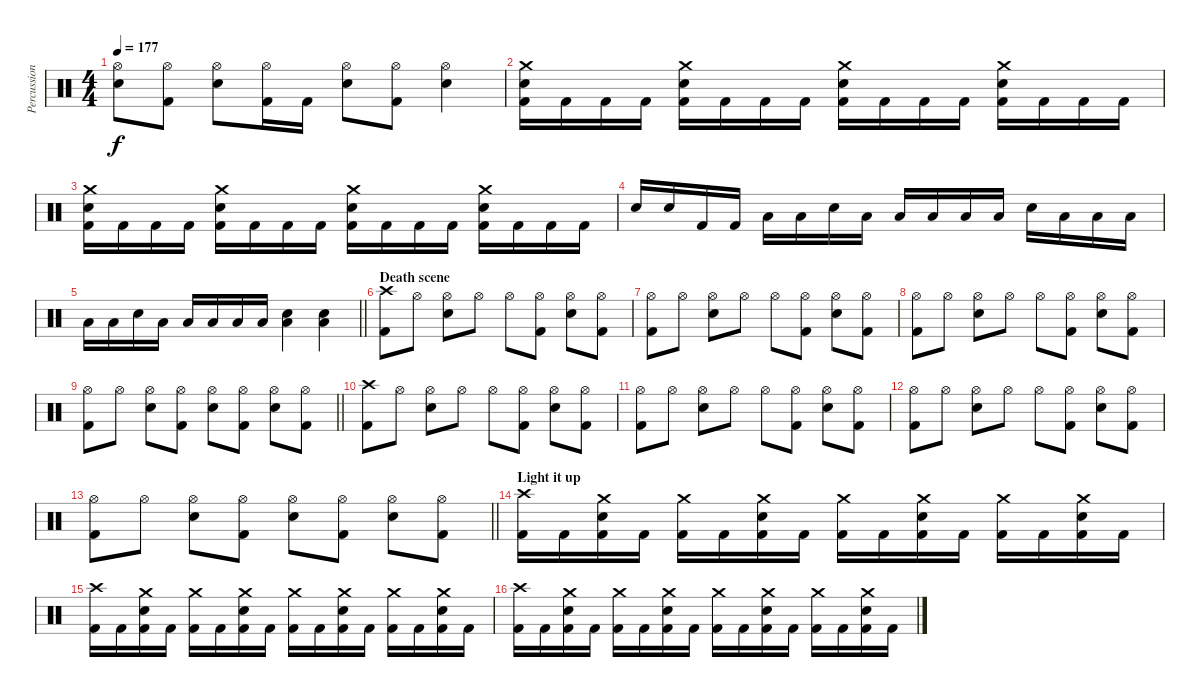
\track ("Percussion" "Percussion") {instrument percussion}
\staff {score}
\articulation defaults
\ts (4 4)
\tempo 177
\clef neutral
\ks c
("Hi-Hat (open)" "Snare (hit) 2").8{dy f} ("Hi-Hat (open)" "Kick (hit) 2").8 ("Hi-Hat (open)" "Snare (hit) 2").8 ("Hi-Hat (open)" "Kick (hit) 2").16 "Kick (hit) 2".16 ("Hi-Hat (open)" "Snare (hit) 2").8 ("Hi-Hat (open)" "Kick (hit) 2").8 ("Hi-Hat (open)" "Snare (hit) 2").4 |
("Crash medium (hit)" "Snare (hit) 2" "Kick (hit) 2").16 "Kick (hit) 2".16 "Kick (hit) 2".16 "Kick (hit) 2".16 ("Crash medium (hit)" "Snare (hit) 2" "Kick (hit) 2").16 "Kick (hit) 2".16 "Kick (hit) 2".16 "Kick (hit) 2".16 ("Crash medium (hit)" "Snare (hit) 2" "Kick (hit) 2").16 "Kick (hit) 2".16 "Kick (hit) 2".16 "Kick (hit) 2".16 ("Crash medium (hit)" "Snare (hit) 2" "Kick (hit) 2").16 "Kick (hit) 2".16 "Kick (hit) 2".16 "Kick (hit) 2".16 |
("Crash medium (hit)" "Snare (hit) 2" "Kick (hit) 2").16 "Kick (hit) 2".16 "Kick (hit) 2".16 "Kick (hit) 2".16 ("Crash medium (hit)" "Snare (hit) 2" "Kick (hit) 2").16 "Kick (hit) 2".16 "Kick (hit) 2".16 "Kick (hit) 2".16 ("Crash medium (hit)" "Snare (hit) 2" "Kick (hit) 2").16 "Kick (hit) 2".16 "Kick (hit) 2".16 "Kick (hit) 2".16 ("Crash medium (hit)" "Snare (hit) 2" "Kick (hit) 2").16 "Kick (hit) 2".16 "Kick (hit) 2".16 "Kick (hit) 2".16 |
"Snare (hit) 2".16 "Snare (hit) 2".16 "Kick (hit) 2".16 "Kick (hit) 2".16 "Low Tom (hit)".16 "Low Tom (hit)".16 "Snare (hit) 2".16 "Low Tom (hit)".16 "Low Tom (hit)".16 "Low Tom (hit)".16 "Low Tom (hit)".16 "Low Tom (hit)".16 "Snare (hit) 2".16 "Low Tom (hit)".16 "Low Tom (hit)".16 "Low Tom (hit)".16 |
\barLineRight lightlight "Low Tom (hit)".16 "Low Tom (hit)".16 "Snare (hit) 2".16 "Low Tom (hit)".16 "Low Tom (hit)".16 "Low Tom (hit)".16 "Low Tom (hit)".16 "Low Tom (hit)".16
("Snare (hit) 2" "Low Floor Tom (hit)").4 ("Snare (hit) 2" "Low Floor Tom (hit)").4 |
\section ("" "Death scene")
("Crash high (hit)" "Kick (hit) 2").8 "Hi-Hat (open)".8 ("Hi-Hat (open)" "Snare (hit) 2").8 "Hi-Hat (open)".8 "Hi-Hat (open)".8 ("Hi-Hat (open)" "Kick (hit) 2").8 ("Hi-Hat (open)" "Snare (hit) 2").8 ("Hi-Hat (open)" "Kick (hit) 2").8 |
("Hi-Hat (open)" "Kick (hit) 2").8 "Hi-Hat (open)".8 ("Hi-Hat (open)" "Snare (hit) 2").8 "Hi-Hat (open)".8 "Hi-Hat (open)".8 ("Hi-Hat (open)" "Kick (hit) 2").8 ("Hi-Hat (open)" "Snare (hit) 2").8 ("Hi-Hat (open)" "Kick (hit) 2").8 |
("Hi-Hat (open)" "Kick (hit) 2").8 "Hi-Hat (open)".8 ("Hi-Hat (open)" "Snare (hit) 2").8 "Hi-Hat (open)".8 "Hi-Hat (open)".8 ("Hi-Hat (open)" "Kick (hit) 2").8 ("Hi-Hat (open)" "Snare (hit) 2").8 ("Hi-Hat (open)" "Kick (hit) 2").8 |
\barLineRight lightlight
("Hi-Hat (open)" "Kick (hit) 2").8 "Hi-Hat (open)".8 ("Hi-Hat (open)" "Snare (hit) 2").8 ("Hi-Hat (open)" "Kick (hit) 2").8 ("Hi-Hat (open)" "Snare (hit) 2").8 ("Hi-Hat (open)" "Kick (hit) 2").8 ("Hi-Hat (open)" "Snare (hit) 2").8 ("Hi-Hat (open)" "Kick (hit) 2").8 |
("Crash high (hit)" "Kick (hit) 2").8 "Hi-Hat (open)".8 ("Hi-Hat (open)" "Snare (hit) 2").8 "Hi-Hat (open)".8 "Hi-Hat (open)".8 ("Hi-Hat (open)" "Kick (hit) 2").8 ("Hi-Hat (open)" "Snare (hit) 2").8 ("Hi-Hat (open)" "Kick (hit) 2").8 |
("Hi-Hat (open)" "Kick (hit) 2").8 "Hi-Hat (open)".8 ("Hi-Hat (open)" "Snare (hit) 2").8 "Hi-Hat (open)".8 "Hi-Hat (open)".8 ("Hi-Hat (open)" "Kick (hit) 2").8 ("Hi-Hat (open)" "Snare (hit) 2").8 ("Hi-Hat (open)" "Kick (hit) 2").8 |
("Hi-Hat (open)" "Kick (hit) 2").8 "Hi-Hat (open)".8 ("Hi-Hat (open)" "Snare (hit) 2").8 "Hi-Hat (open)".8 "Hi-Hat (open)".8 ("Hi-Hat (open)" "Kick (hit) 2").8 ("Hi-Hat (open)" "Snare (hit) 2").8 ("Hi-Hat (open)" "Kick (hit) 2").8 |
\barLineRight lightlight
("Hi-Hat (open)" "Kick (hit) 2").8 "Hi-Hat (open)".8 ("Hi-Hat (open)" "Snare (hit) 2").8 ("Hi-Hat (open)" "Kick (hit) 2").8 ("Hi-Hat (open)" "Snare (hit) 2").8 ("Hi-Hat (open)" "Kick (hit) 2").8 ("Hi-Hat (open)" "Snare (hit) 2").8 ("Hi-Hat (open)" "Kick (hit) 2").8 |
\section ("" "Light it up")
("Crash high (hit)" "Kick (hit) 2").16 "Kick (hit) 2".16 ("Crash medium (hit)" "Snare (hit) 2" "Kick (hit) 2").16 "Kick (hit) 2".16 ("Crash medium (hit)" "Kick (hit) 2").16 "Kick (hit) 2".16 ("Crash medium (hit)" "Snare (hit) 2" "Kick (hit) 2").16 "Kick (hit) 2".16 ("Crash medium (hit)" "Kick (hit) 2").16 "Kick (hit) 2".16 ("Crash medium (hit)" "Snare (hit) 2" "Kick (hit) 2").16 "Kick (hit) 2".16 ("Crash medium (hit)" "Kick (hit) 2").16 "Kick (hit) 2".16 ("Crash medium (hit)" "Snare (hit) 2" "Kick (hit) 2").16 "Kick (hit) 2".16 |
("Crash high (hit)" "Kick (hit) 2").16 "Kick (hit) 2".16 ("Crash medium (hit)" "Snare (hit) 2" "Kick (hit) 2").16 "Kick (hit) 2".16 ("Crash medium (hit)" "Kick (hit) 2").16 "Kick (hit) 2".16 ("Crash medium (hit)" "Snare (hit) 2" "Kick (hit) 2").16 "Kick (hit) 2".16 ("Crash medium (hit)" "Kick (hit) 2").16 "Kick (hit) 2".16 ("Crash medium (hit)" "Snare (hit) 2" "Kick (hit) 2").16 "Kick (hit) 2".16 ("Crash medium (hit)" "Kick (hit) 2").16 "Kick (hit) 2".16 ("Crash medium (hit)" "Snare (hit) 2" "Kick (hit) 2").16 "Kick (hit) 2".16 |
("Crash high (hit)" "Kick (hit) 2").16 "Kick (hit) 2".16 ("Crash medium (hit)" "Snare (hit) 2" "Kick (hit) 2").16 "Kick (hit) 2".16 ("Crash medium (hit)" "Kick (hit) 2").16 "Kick (hit) 2".16 ("Crash medium (hit)" "Snare (hit) 2" "Kick (hit) 2").16 "Kick (hit) 2".16 ("Crash medium (hit)" "Kick (hit) 2").16 "Kick (hit) 2".16 ("Crash medium (hit)" "Snare (hit) 2" "Kick (hit) 2").16 "Kick (hit) 2".16 ("Crash medium (hit)" "Kick (hit) 2").16 "Kick (hit) 2".16 ("Crash medium (hit)" "Snare (hit) 2" "Kick (hit) 2").16 "Kick (hit) 2".16
